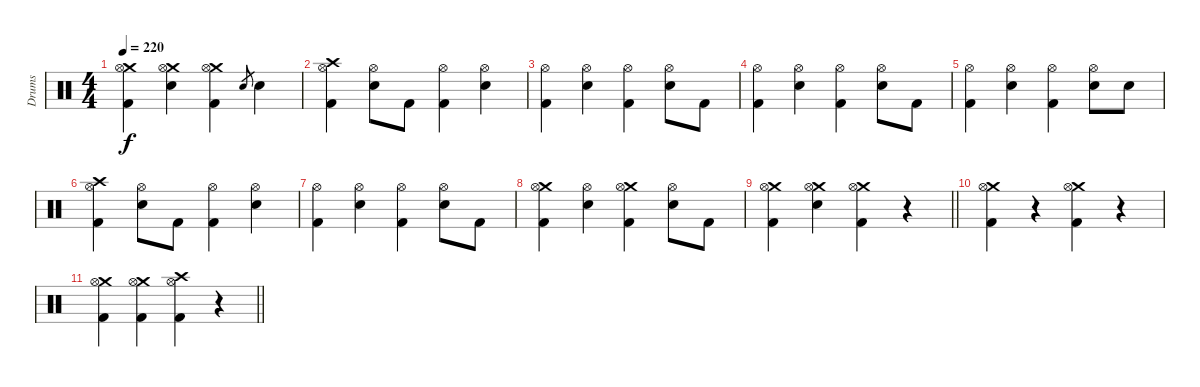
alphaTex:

\track ("Drums" "Drums") {instrument percussion}
\staff {score}
\articulation defaults
\ts (4 4)
\tempo 220
\clef neutral
\ks c
("Crash medium (hit)" "Hi-Hat (open)" "Kick (hit) 2").4{dy f} ("Crash medium (hit)" "Hi-Hat (open)" "Snare (hit) 2").4 ("Crash medium (hit)" "Hi-Hat (open)" "Kick (hit) 2").4 "Snare (hit) 2".8{gr} "Snare (hit) 2".4 |
("Crash high (hit)" "Hi-Hat (open)" "Kick (hit) 2").4 ("Hi-Hat (open)" "Snare (hit) 2").8 "Kick (hit) 2".8 ("Hi-Hat (open)" "Kick (hit) 2").4 ("Hi-Hat (open)" "Snare (hit) 2").4 |
("Hi-Hat (open)" "Kick (hit) 2").4 ("Hi-Hat (open)" "Snare (hit) 2").4 ("Hi-Hat (open)" "Kick (hit) 2").4 ("Hi-Hat (open)" "Snare (hit) 2").8 "Kick (hit) 2".8 |
("Hi-Hat (open)" "Kick (hit) 2").4 ("Hi-Hat (open)" "Snare (hit) 2").4 ("Hi-Hat (open)" "Kick (hit) 2").4 ("Hi-Hat (open)" "Snare (hit) 2").8 "Kick (hit) 2".8 |
("Hi-Hat (open)" "Kick (hit) 2").4 ("Hi-Hat (open)" "Snare (hit) 2").4 ("Hi-Hat (open)" "Kick (hit) 2").4 ("Hi-Hat (open)" "Snare (hit) 2").8 "Snare (hit) 2".8 |
("Crash high (hit)" "Hi-Hat (open)" "Kick (hit) 2").4 ("Hi-Hat (open)" "Snare (hit) 2").8 "Kick (hit) 2".8 ("Hi-Hat (open)" "Kick (hit) 2").4 ("Hi-Hat (open)" "Snare (hit) 2").4 |
("Hi-Hat (open)" "Kick (hit) 2").4 ("Hi-Hat (open)" "Snare (hit) 2").4 ("Hi-Hat (open)" "Kick (hit) 2").4 ("Hi-Hat (open)" "Snare (hit) 2").8 "Kick (hit) 2".8 |
("Crash medium (hit)" "Hi-Hat (open)" "Kick (hit) 2").4 ("Hi-Hat (open)" "Snare (hit) 2").4 ("Crash medium (hit)" "Hi-Hat (open)" "Kick (hit) 2").4 ("Hi-Hat (open)" "Snare (hit) 2").8 "Kick (hit) 2".8 |
\barLineRight lightlight
("Crash medium (hit)" "Hi-Hat (open)" "Kick (hit) 2").4 ("Crash medium (hit)" "Hi-Hat (open)" "Snare (hit) 2").4 ("Crash medium (hit)" "Hi-Hat (open)" "Kick (hit) 2").4 r.4 |
("Crash medium (hit)" "Hi-Hat (open)" "Kick (hit) 2").4 r.4 ("Crash medium (hit)" "Hi-Hat (open)" "Kick (hit) 2").4 r.4 |
\barLineRight lightlight
("Crash medium (hit)" "Hi-Hat (open)" "Kick (hit) 2").4 ("Crash medium (hit)" "Hi-Hat (open)" "Kick (hit) 2").4 ("Crash high (hit)" "Hi-Hat (open)" "Kick (hit) 2").4 r.4
